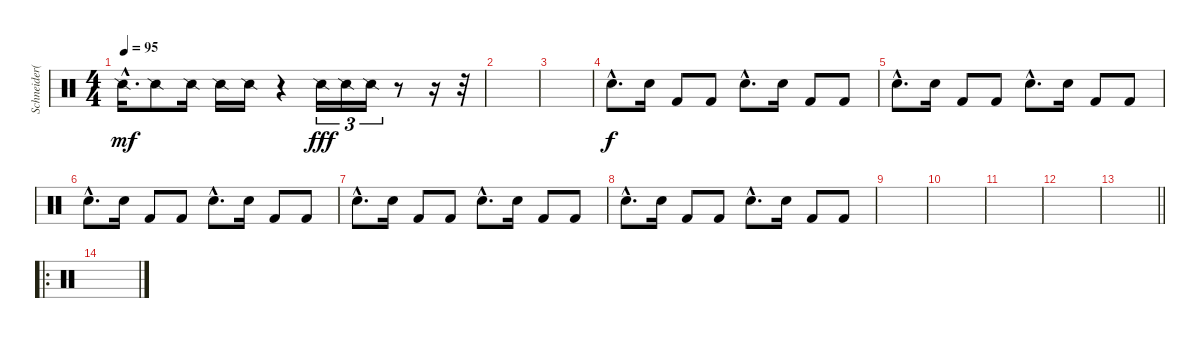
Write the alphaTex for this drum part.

\track ("Schneider(Synth)" "Schneider(") {instrument percussion}
\staff {score}
\articulation defaults
\ts (4 4)
\tempo 95
\clef neutral
\ks c "Snare (side stick) 2"{hac}.16{d dy mf} "Snare (side stick) 2".8 "Snare (side stick) 2".16 "Snare (side stick) 2".16 "Snare (side stick) 2".16
r.4 "Snare (side stick) 2".16{tu (3 2) dy fff} "Snare (side stick) 2".16{tu (3 2)} "Snare (side stick) 2".16{tu (3 2)} r.8 r.16 r.32 |
|
|
"Snare (hit) 2"{hac}.8{d dy f} "Snare (hit) 2".16 "Kick (hit) 2".8 "Kick (hit) 2".8 "Snare (hit) 2"{hac}.8{d} "Snare (hit) 2".16 "Kick (hit) 2".8 "Kick (hit) 2".8 |
"Snare (hit) 2"{hac}.8{d} "Snare (hit) 2".16 "Kick (hit) 2".8 "Kick (hit) 2".8 "Snare (hit) 2"{hac}.8{d} "Snare (hit) 2".16 "Kick (hit) 2".8 "Kick (hit) 2".8 |
"Snare (hit) 2"{hac}.8{d} "Snare (hit) 2".16 "Kick (hit) 2".8 "Kick (hit) 2".8 "Snare (hit) 2"{hac}.8{d} "Snare (hit) 2".16 "Kick (hit) 2".8 "Kick (hit) 2".8 |
"Snare (hit) 2"{hac}.8{d} "Snare (hit) 2".16 "Kick (hit) 2".8 "Kick (hit) 2".8 "Snare (hit) 2"{hac}.8{d} "Snare (hit) 2".16 "Kick (hit) 2".8 "Kick (hit) 2".8 |
"Snare (hit) 2"{hac}.8{d} "Snare (hit) 2".16 "Kick (hit) 2".8 "Kick (hit) 2".8 "Snare (hit) 2"{hac}.8{d} "Snare (hit) 2".16 "Kick (hit) 2".8 "Kick (hit) 2".8 |
|
|
|
|
\barLineRight lightlight
|
\ro
